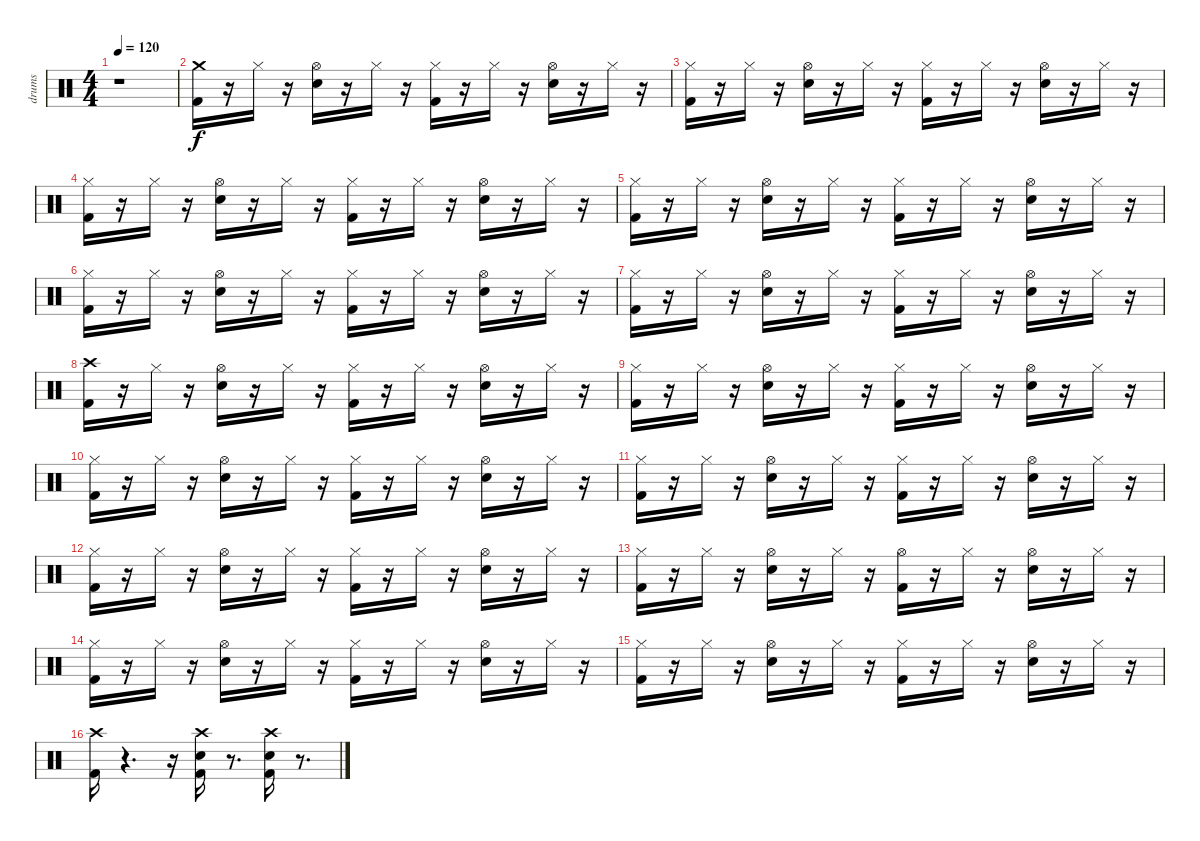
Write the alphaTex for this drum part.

\track ("drums" "drums") {instrument percussion}
\staff {score}
\articulation defaults
\ts (4 4)
\tempo 120
\clef neutral
\ks c
r.1{dy f} |
("Crash medium (hit)" "Kick (hit) 2").16 r.16 "Hi-Hat (closed)".16 r.16 ("Hi-Hat (open)" "Electric Snare (hit)").16 r.16 "Hi-Hat (closed)".16 r.16 ("Hi-Hat (closed)" "Kick (hit) 2").16 r.16 "Hi-Hat (closed)".16 r.16 ("Electric Snare (hit)" "Hi-Hat (open)").16 r.16 "Hi-Hat (closed)".16 r.16 |
("Hi-Hat (closed)" "Kick (hit) 2").16 r.16 "Hi-Hat (closed)".16 r.16 ("Hi-Hat (open)" "Electric Snare (hit)").16 r.16 "Hi-Hat (closed)".16 r.16 ("Hi-Hat (closed)" "Kick (hit) 2").16 r.16 "Hi-Hat (closed)".16 r.16 ("Hi-Hat (open)" "Electric Snare (hit)").16 r.16 "Hi-Hat (closed)".16 r.16 |
("Hi-Hat (closed)" "Kick (hit) 2").16 r.16 "Hi-Hat (closed)".16 r.16 ("Hi-Hat (open)" "Electric Snare (hit)").16 r.16 "Hi-Hat (closed)".16 r.16 ("Hi-Hat (closed)" "Kick (hit) 2").16 r.16 "Hi-Hat (closed)".16 r.16 ("Hi-Hat (open)" "Snare (hit) 2").16 r.16 "Hi-Hat (closed)".16 r.16 |
("Hi-Hat (closed)" "Kick (hit) 2").16 r.16 "Hi-Hat (closed)".16 r.16 ("Hi-Hat (open)" "Electric Snare (hit)").16 r.16 "Hi-Hat (closed)".16 r.16 ("Hi-Hat (closed)" "Kick (hit) 2").16 r.16 "Hi-Hat (closed)".16 r.16 ("Hi-Hat (open)" "Electric Snare (hit)").16 r.16 "Hi-Hat (closed)".16 r.16 |
("Hi-Hat (closed)" "Kick (hit) 2").16 r.16 "Hi-Hat (closed)".16 r.16 ("Hi-Hat (open)" "Snare (hit) 2").16 r.16 "Hi-Hat (closed)".16 r.16 ("Hi-Hat (closed)" "Kick (hit) 2").16 r.16 "Hi-Hat (closed)".16 r.16 ("Hi-Hat (open)" "Snare (hit) 2").16 r.16 "Hi-Hat (closed)".16 r.16 |
("Hi-Hat (closed)" "Kick (hit) 2").16 r.16 "Hi-Hat (closed)".16 r.16 ("Hi-Hat (open)" "Snare (hit) 2").16 r.16 "Hi-Hat (closed)".16 r.16 ("Hi-Hat (closed)" "Kick (hit) 2").16 r.16 "Hi-Hat (closed)".16 r.16 ("Hi-Hat (open)" "Snare (hit) 2").16 r.16 "Hi-Hat (closed)".16 r.16 |
("Crash high (hit)" "Kick (hit) 2").16 r.16 "Hi-Hat (closed)".16 r.16 ("Hi-Hat (open)" "Electric Snare (hit)").16 r.16 "Hi-Hat (closed)".16 r.16 ("Hi-Hat (closed)" "Kick (hit) 2").16 r.16 "Hi-Hat (closed)".16 r.16 ("Hi-Hat (open)" "Snare (hit) 2").16 r.16 "Hi-Hat (closed)".16 r.16 |
("Hi-Hat (closed)" "Kick (hit) 2").16 r.16 "Hi-Hat (closed)".16 r.16 ("Hi-Hat (open)" "Snare (hit) 2").16 r.16 "Hi-Hat (closed)".16 r.16 ("Hi-Hat (closed)" "Kick (hit) 2").16 r.16 "Hi-Hat (closed)".16 r.16 ("Hi-Hat (open)" "Snare (hit) 2").16 r.16 "Hi-Hat (closed)".16 r.16 |
("Hi-Hat (closed)" "Kick (hit) 2").16 r.16 "Hi-Hat (closed)".16 r.16 ("Hi-Hat (open)" "Electric Snare (hit)").16 r.16 "Hi-Hat (closed)".16 r.16 ("Hi-Hat (closed)" "Kick (hit) 2").16 r.16 "Hi-Hat (closed)".16 r.16 ("Hi-Hat (open)" "Electric Snare (hit)").16 r.16 "Hi-Hat (closed)".16 r.16 |
("Hi-Hat (closed)" "Kick (hit) 2").16 r.16 "Hi-Hat (closed)".16 r.16 ("Hi-Hat (open)" "Snare (hit) 2").16 r.16 "Hi-Hat (closed)".16 r.16 ("Hi-Hat (closed)" "Kick (hit) 2").16 r.16 "Hi-Hat (closed)".16 r.16 ("Hi-Hat (open)" "Electric Snare (hit)").16 r.16 "Hi-Hat (closed)".16 r.16 |
("Hi-Hat (closed)" "Kick (hit) 2").16 r.16 "Hi-Hat (closed)".16 r.16 ("Hi-Hat (open)" "Snare (hit) 2").16 r.16 "Hi-Hat (closed)".16 r.16 ("Hi-Hat (closed)" "Kick (hit) 2").16 r.16 "Hi-Hat (closed)".16 r.16 ("Hi-Hat (open)" "Electric Snare (hit)").16 r.16 "Hi-Hat (closed)".16 r.16 |
("Hi-Hat (closed)" "Kick (hit) 2").16 r.16 "Hi-Hat (closed)".16 r.16 ("Hi-Hat (open)" "Snare (hit) 2").16 r.16 "Hi-Hat (closed)".16 r.16 ("Hi-Hat (open)" "Kick (hit) 2").16 r.16 "Hi-Hat (closed)".16 r.16 ("Hi-Hat (open)" "Electric Snare (hit)").16 r.16 "Hi-Hat (closed)".16 r.16 |
("Hi-Hat (closed)" "Kick (hit) 2").16 r.16 "Hi-Hat (closed)".16 r.16 ("Hi-Hat (open)" "Snare (hit) 2").16 r.16 "Hi-Hat (closed)".16 r.16 ("Hi-Hat (closed)" "Kick (hit) 2").16 r.16 "Hi-Hat (closed)".16 r.16 ("Hi-Hat (open)" "Snare (hit) 2").16 r.16 "Hi-Hat (closed)".16 r.16 |
("Hi-Hat (closed)" "Kick (hit) 2").16 r.16 "Hi-Hat (closed)".16 r.16 ("Hi-Hat (open)" "Snare (hit) 2").16 r.16 "Hi-Hat (closed)".16 r.16 ("Hi-Hat (closed)" "Kick (hit) 2").16 r.16 "Hi-Hat (closed)".16 r.16 ("Hi-Hat (open)" "Electric Snare (hit)").16 r.16 "Hi-Hat (closed)".16 r.16 |
("Crash high (hit)" "Kick (hit) 2").16 r.4{d} r.16 ("Crash high (hit)" "Kick (hit) 2" "Snare (hit) 2").16 r.8{d} ("Kick (hit) 2" "Snare (hit) 2" "Crash high (hit)").16 r.8{d}
